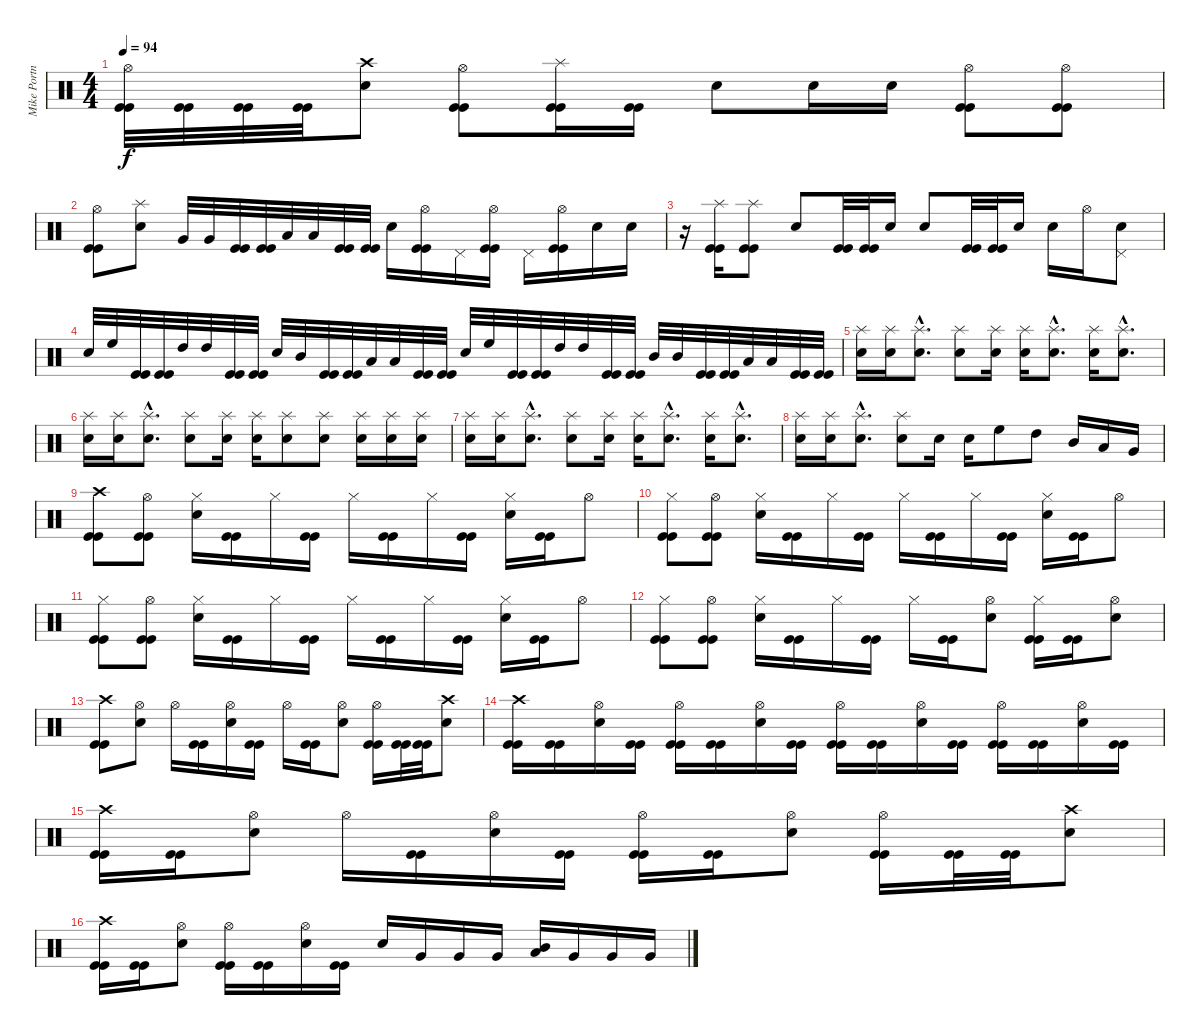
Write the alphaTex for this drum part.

\track ("Mike Portnoy - Drum" "Mike Portn") {instrument percussion}
\staff {score}
\articulation defaults
\ts (4 4)
\tempo 94
\clef neutral
\ks c
("Hi-Hat (open)" "Kick (hit)" "Kick (hit)").32{dy f} ("Kick (hit)" "Kick (hit)").32 ("Kick (hit)" "Kick (hit)").32 ("Kick (hit)" "Kick (hit)").32 ("Crash high (hit)" "Snare (hit) 2").8 ("Hi-Hat (open)" "Kick (hit)" "Kick (hit)").8 ("Splash (hit)" "Kick (hit)" "Kick (hit)").16 ("Kick (hit)" "Kick (hit)").16 "Snare (hit) 2".8 "Snare (hit) 2".16 "Snare (hit) 2".16 ("Hi-Hat (open)" "Kick (hit)" "Kick (hit)").8 ("Hi-Hat (open)" "Kick (hit)" "Kick (hit)").8 |
("Hi-Hat (open)" "Kick (hit)" "Kick (hit)").8 ("Splash (hit)" "Snare (hit) 2").8 "Very Low Tom (hit)".32 "Very Low Tom (hit)".32 ("Kick (hit)" "Kick (hit)").32 ("Kick (hit)" "Kick (hit)").32 "Low Floor Tom (hit)".32 "Low Floor Tom (hit)".32 ("Kick (hit)" "Kick (hit)").32 ("Kick (hit)" "Kick (hit)").32 "Snare (hit) 2".16 ("Hi-Hat (open)" "Kick (hit)" "Kick (hit)").16 "Pedal Hi-Hat (hit)".16 ("Hi-Hat (open)" "Kick (hit)" "Kick (hit)").16 "Pedal Hi-Hat (hit)".16 ("Hi-Hat (open)" "Kick (hit)" "Kick (hit)").16 "Snare (hit) 2".16 "Snare (hit) 2".16 |
r.16 ("Splash (hit)" "Kick (hit)" "Kick (hit)").16 ("Splash (hit)" "Kick (hit)" "Kick (hit)").8 "Snare (hit) 2".8 ("Kick (hit)" "Kick (hit)").32 ("Kick (hit)" "Kick (hit)").32 "Snare (hit) 2".16 "Snare (hit) 2".8 ("Kick (hit)" "Kick (hit)").32 ("Kick (hit)" "Kick (hit)").32 "Snare (hit) 2".16 "Snare (hit) 2".16 "Hi-Hat (open)".16 ("Pedal Hi-Hat (hit)" "Snare (hit) 2").8 |
"Snare (hit) 2".32 "High Floor Tom (hit)".32 ("Kick (hit)" "Kick (hit)").32 ("Kick (hit)" "Kick (hit)").32 "High Tom (hit)".32 "High Tom (hit)".32 ("Kick (hit)" "Kick (hit)").32 ("Kick (hit)" "Kick (hit)").32 "Snare (hit) 2".32 "Mid Tom (hit)".32 ("Kick (hit)" "Kick (hit)").32 ("Kick (hit)" "Kick (hit)").32 "Low Tom (hit)".32 "Low Tom (hit)".32 ("Kick (hit)" "Kick (hit)").32 ("Kick (hit)" "Kick (hit)").32 "Snare (hit) 2".32 "High Floor Tom (hit)".32 ("Kick (hit)" "Kick (hit)").32 ("Kick (hit)" "Kick (hit)").32 "High Tom (hit)".32 "High Tom (hit)".32 ("Kick (hit)" "Kick (hit)").32 ("Kick (hit)" "Kick (hit)").32 "Mid Tom (hit)".32 "Mid Tom (hit)".32 ("Kick (hit)" "Kick (hit)").32 ("Kick (hit)" "Kick (hit)").32 "Low Tom (hit)".32 "Low Tom (hit)".32 ("Kick (hit)" "Kick (hit)").32 ("Kick (hit)" "Kick (hit)").32 |
("Splash (hit)" "Snare (hit) 2").16 ("Splash (hit)" "Snare (hit) 2").16 ("Splash (hit)"{hac} "Snare (hit) 2"{hac}).8{d} ("Splash (hit)" "Snare (hit) 2").8 ("Splash (hit)" "Snare (hit) 2").16 ("Splash (hit)" "Snare (hit) 2").16 ("Splash (hit)"{hac} "Snare (hit) 2"{hac}).8{d} ("Splash (hit)" "Snare (hit) 2").16 ("Splash (hit)"{hac} "Snare (hit) 2"{hac}).8{d} |
("Splash (hit)" "Snare (hit) 2").16 ("Splash (hit)" "Snare (hit) 2").16 ("Splash (hit)"{hac} "Snare (hit) 2"{hac}).8{d} ("Splash (hit)" "Snare (hit) 2").8 ("Splash (hit)" "Snare (hit) 2").16 ("Splash (hit)" "Snare (hit) 2").16 ("Splash (hit)" "Snare (hit) 2").8 ("Splash (hit)" "Snare (hit) 2").8 ("Splash (hit)" "Snare (hit) 2").16 ("Splash (hit)" "Snare (hit) 2").16 ("Splash (hit)" "Snare (hit) 2").16 |
("Splash (hit)" "Snare (hit) 2").16 ("Splash (hit)" "Snare (hit) 2").16 ("Splash (hit)"{hac} "Snare (hit) 2"{hac}).8{d} ("Splash (hit)" "Snare (hit) 2").8 ("Splash (hit)" "Snare (hit) 2").16 ("Splash (hit)" "Snare (hit) 2").16 ("Splash (hit)"{hac} "Snare (hit) 2"{hac}).8{d} ("Splash (hit)" "Snare (hit) 2").16 ("Splash (hit)"{hac} "Snare (hit) 2"{hac}).8{d} |
("Splash (hit)" "Snare (hit) 2").16 ("Splash (hit)" "Snare (hit) 2").16 ("Splash (hit)"{hac} "Snare (hit) 2"{hac}).8{d} ("Splash (hit)" "Snare (hit) 2").8 "Snare (hit) 2".16 "Snare (hit) 2".16 "High Floor Tom (hit)".8 "High Tom (hit)".8 "Mid Tom (hit)".16 "Low Tom (hit)".16 "Very Low Tom (hit)".16 |
("Crash high (hit)" "Kick (hit)" "Kick (hit)").8 ("Hi-Hat (open)" "Kick (hit)" "Kick (hit)").8 ("Hi-Hat (closed)" "Snare (hit) 2").16 ("Kick (hit)" "Kick (hit)").16 "Hi-Hat (closed)".16 ("Kick (hit)" "Kick (hit)").16 "Hi-Hat (closed)".16 ("Kick (hit)" "Kick (hit)").16 "Hi-Hat (closed)".16 ("Kick (hit)" "Kick (hit)").16 ("Hi-Hat (closed)" "Snare (hit) 2").16 ("Kick (hit)" "Kick (hit)").16 "Hi-Hat (open)".8 |
("Hi-Hat (closed)" "Kick (hit)" "Kick (hit)").8 ("Hi-Hat (open)" "Kick (hit)" "Kick (hit)").8 ("Hi-Hat (closed)" "Snare (hit) 2").16 ("Kick (hit)" "Kick (hit)").16 "Hi-Hat (closed)".16 ("Kick (hit)" "Kick (hit)").16 "Hi-Hat (closed)".16 ("Kick (hit)" "Kick (hit)").16 "Hi-Hat (closed)".16 ("Kick (hit)" "Kick (hit)").16 ("Hi-Hat (closed)" "Snare (hit) 2").16 ("Kick (hit)" "Kick (hit)").16 "Hi-Hat (open)".8 |
("Hi-Hat (closed)" "Kick (hit)" "Kick (hit)").8 ("Hi-Hat (open)" "Kick (hit)" "Kick (hit)").8 ("Hi-Hat (closed)" "Snare (hit) 2").16 ("Kick (hit)" "Kick (hit)").16 "Hi-Hat (closed)".16 ("Kick (hit)" "Kick (hit)").16 "Hi-Hat (closed)".16 ("Kick (hit)" "Kick (hit)").16 "Hi-Hat (closed)".16 ("Kick (hit)" "Kick (hit)").16 ("Hi-Hat (closed)" "Snare (hit) 2").16 ("Kick (hit)" "Kick (hit)").16 "Hi-Hat (open)".8 |
("Hi-Hat (closed)" "Kick (hit)" "Kick (hit)").8 ("Hi-Hat (open)" "Kick (hit)" "Kick (hit)").8 ("Hi-Hat (closed)" "Snare (hit) 2").16 ("Kick (hit)" "Kick (hit)").16 "Hi-Hat (closed)".16 ("Kick (hit)" "Kick (hit)").16 "Hi-Hat (closed)".16 ("Kick (hit)" "Kick (hit)").16 ("Hi-Hat (open)" "Snare (hit) 2").8 ("Hi-Hat (closed)" "Kick (hit)" "Kick (hit)").16 ("Kick (hit)" "Kick (hit)").16 ("Hi-Hat (open)" "Snare (hit) 2").8 |
("Crash high (hit)" "Kick (hit)" "Kick (hit)").8 ("Hi-Hat (open)" "Snare (hit) 2").8 "Hi-Hat (open)".16 ("Kick (hit)" "Kick (hit)").16 ("Hi-Hat (open)" "Snare (hit) 2").16 ("Kick (hit)" "Kick (hit)").16 "Hi-Hat (open)".16 ("Kick (hit)" "Kick (hit)").16 ("Hi-Hat (open)" "Snare (hit) 2").8 ("Hi-Hat (open)" "Kick (hit)" "Kick (hit)").16 ("Kick (hit)" "Kick (hit)").32 ("Kick (hit)" "Kick (hit)").32 ("Crash high (hit)" "Snare (hit) 2").8 |
("Crash high (hit)" "Kick (hit)" "Kick (hit)").16 ("Kick (hit)" "Kick (hit)").16 ("Hi-Hat (open)" "Snare (hit) 2").16 ("Kick (hit)" "Kick (hit)").16 ("Hi-Hat (open)" "Kick (hit)" "Kick (hit)").16 ("Kick (hit)" "Kick (hit)").16 ("Hi-Hat (open)" "Snare (hit) 2").16 ("Kick (hit)" "Kick (hit)").16 ("Hi-Hat (open)" "Kick (hit)" "Kick (hit)").16 ("Kick (hit)" "Kick (hit)").16 ("Hi-Hat (open)" "Snare (hit) 2").16 ("Kick (hit)" "Kick (hit)").16 ("Hi-Hat (open)" "Kick (hit)" "Kick (hit)").16 ("Kick (hit)" "Kick (hit)").16 ("Hi-Hat (open)" "Snare (hit) 2").16 ("Kick (hit)" "Kick (hit)").16 |
("Crash high (hit)" "Kick (hit)" "Kick (hit)").16 ("Kick (hit)" "Kick (hit)").16 ("Hi-Hat (open)" "Snare (hit) 2").8 "Hi-Hat (open)".16 ("Kick (hit)" "Kick (hit)").16 ("Hi-Hat (open)" "Snare (hit) 2").16 ("Kick (hit)" "Kick (hit)").16 ("Hi-Hat (open)" "Kick (hit)" "Kick (hit)").16 ("Kick (hit)" "Kick (hit)").16 ("Hi-Hat (open)" "Snare (hit) 2").8 ("Hi-Hat (open)" "Kick (hit)" "Kick (hit)").16 ("Kick (hit)" "Kick (hit)").32 ("Kick (hit)" "Kick (hit)").32 ("Crash high (hit)" "Snare (hit) 2").8 |
("Crash high (hit)" "Kick (hit)" "Kick (hit)").16 ("Kick (hit)" "Kick (hit)").16 ("Hi-Hat (open)" "Snare (hit) 2").8 ("Hi-Hat (open)" "Kick (hit)" "Kick (hit)").16 ("Kick (hit)" "Kick (hit)").16 ("Hi-Hat (open)" "Snare (hit) 2").16 ("Kick (hit)" "Kick (hit)").16 "Snare (hit) 2".16 "Very Low Tom (hit)".16 "Very Low Tom (hit)".16 "Very Low Tom (hit)".16 ("Low Tom (hit)" "Mid Tom (hit)").16 "Very Low Tom (hit)".16 "Very Low Tom (hit)".16 "Very Low Tom (hit)".16
